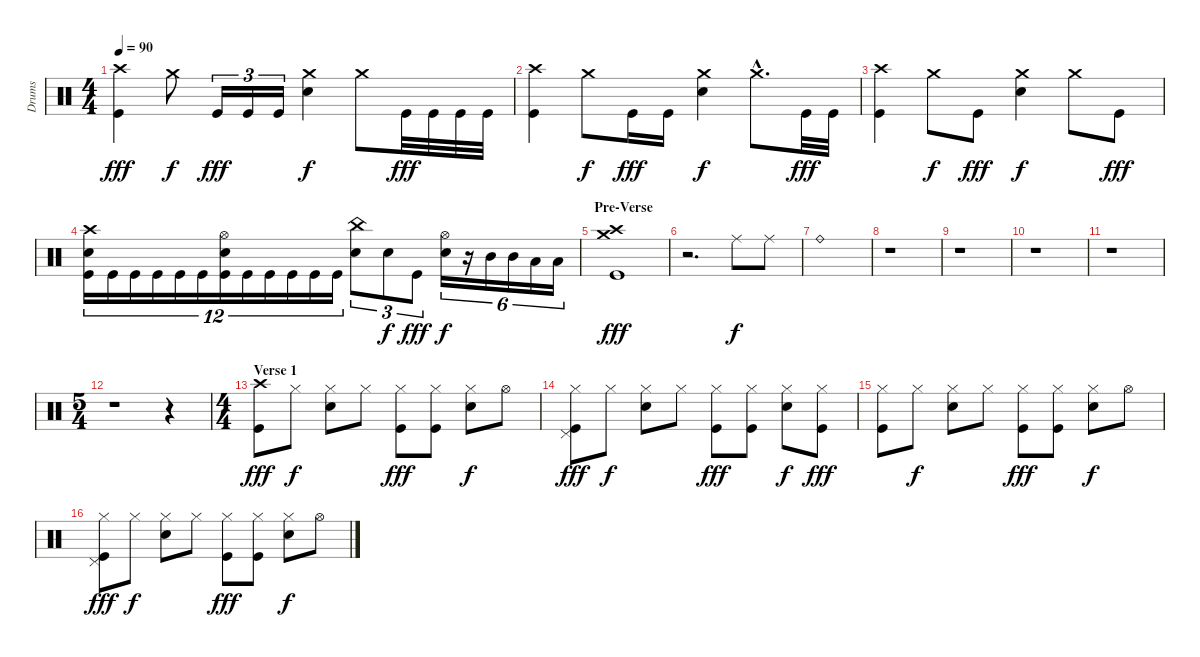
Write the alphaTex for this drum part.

\track ("Drums" "Drums") {instrument percussion}
\staff {score}
\articulation defaults
\ts (4 4)
\tempo 90
\clef neutral
\ks c
("Crash high (hit)" "Kick (hit)").4{dy fff} "Crash medium (hit)".8{dy f} "Kick (hit)".16{tu (3 2) dy fff} "Kick (hit)".16{tu (3 2)} "Kick (hit)".16{tu (3 2)} ("Crash medium (hit)" "Electric Snare (hit)").4{dy f} "Crash medium (hit)".8 "Kick (hit)".32{dy fff} "Kick (hit)".32 "Kick (hit)".32 "Kick (hit)".32 |
("Crash high (hit)" "Kick (hit)").4 "Crash medium (hit)".8{dy f} "Kick (hit)".16{dy fff} "Kick (hit)".16 ("Crash medium (hit)" "Electric Snare (hit)").4{dy f} "Crash medium (hit)"{hac}.8{d} "Kick (hit)".32{dy fff} "Kick (hit)".32 |
("Crash high (hit)" "Kick (hit)").4 "Crash medium (hit)".8{dy f} "Kick (hit)".8{dy fff} ("Crash medium (hit)" "Electric Snare (hit)").4{dy f} "Crash medium (hit)".8 "Kick (hit)".8{dy fff} |
("Crash high (hit)" "Electric Snare (hit)" "Kick (hit)").16{tu (12 8)} "Kick (hit)".16{tu (12 8)} "Kick (hit)".16{tu (12 8)} "Kick (hit)".16{tu (12 8)} "Kick (hit)".16{tu (12 8)} "Kick (hit)".16{tu (12 8)} ("Hi-Hat (open)" "Electric Snare (hit)" "Kick (hit)").16{tu (12 8)} "Kick (hit)".16{tu (12 8)} "Kick (hit)".16{tu (12 8)} "Kick (hit)".16{tu (12 8)} "Kick (hit)".16{tu (12 8)} "Kick (hit)".16{tu (12 8)} ("China (hit)" "Electric Snare (hit)").8{tu (3 2)} "Electric Snare (hit)".8{tu (3 2) dy f} "Kick (hit)".8{tu (3 2) dy fff} ("Hi-Hat (open)" "Electric Snare (hit)").16{tu (6 4) dy f} r.16{tu (6 4)} "Mid Tom (hit)".16{tu (6 4)} "Mid Tom (hit)".16{tu (6 4)} "Low Tom (hit)".16{tu (6 4)} "Low Tom (hit)".16{tu (6 4)} |
\section ("" "Pre-Verse")
("Crash high (hit)" "Crash medium (hit)" "Kick (hit)").1{dy fff} |
r.2{d} "Ride (middle)".8{dy f} "Ride (middle)".8 |
"Ride (bell)".1 |
r.1 |
r.1 |
r.1 |
r.1 |
\ts (5 4)
r.1 r.4 |
\ts (4 4)
\section ("" "Verse 1")
("Crash high (hit)" "Kick (hit)").8{dy fff} "Hi-Hat (closed)".8{dy f} ("Hi-Hat (closed)" "Electric Snare (hit)").8 "Hi-Hat (closed)".8 ("Hi-Hat (closed)" "Kick (hit)").8{dy fff} ("Hi-Hat (closed)" "Kick (hit)").8 ("Hi-Hat (closed)" "Electric Snare (hit)").8{dy f} "Hi-Hat (open)".8 |
("Hi-Hat (closed)" "Pedal Hi-Hat (hit)" "Kick (hit)").8{dy fff} "Hi-Hat (closed)".8{dy f} ("Hi-Hat (closed)" "Electric Snare (hit)").8 "Hi-Hat (closed)".8 ("Hi-Hat (closed)" "Kick (hit)").8{dy fff} ("Hi-Hat (closed)" "Kick (hit)").8 ("Hi-Hat (closed)" "Electric Snare (hit)").8{dy f} ("Hi-Hat (closed)" "Kick (hit)").8{dy fff} |
("Hi-Hat (closed)" "Kick (hit)").8 "Hi-Hat (closed)".8{dy f} ("Hi-Hat (closed)" "Electric Snare (hit)").8 "Hi-Hat (closed)".8 ("Hi-Hat (closed)" "Kick (hit)").8{dy fff} ("Hi-Hat (closed)" "Kick (hit)").8 ("Hi-Hat (closed)" "Electric Snare (hit)").8{dy f} "Hi-Hat (open)".8 |
("Hi-Hat (closed)" "Pedal Hi-Hat (hit)" "Kick (hit)").8{dy fff} "Hi-Hat (closed)".8{dy f} ("Hi-Hat (closed)" "Electric Snare (hit)").8 "Hi-Hat (closed)".8 ("Hi-Hat (closed)" "Kick (hit)").8{dy fff} ("Hi-Hat (closed)" "Kick (hit)").8 ("Hi-Hat (closed)" "Electric Snare (hit)").8{dy f} "Hi-Hat (open)".8
